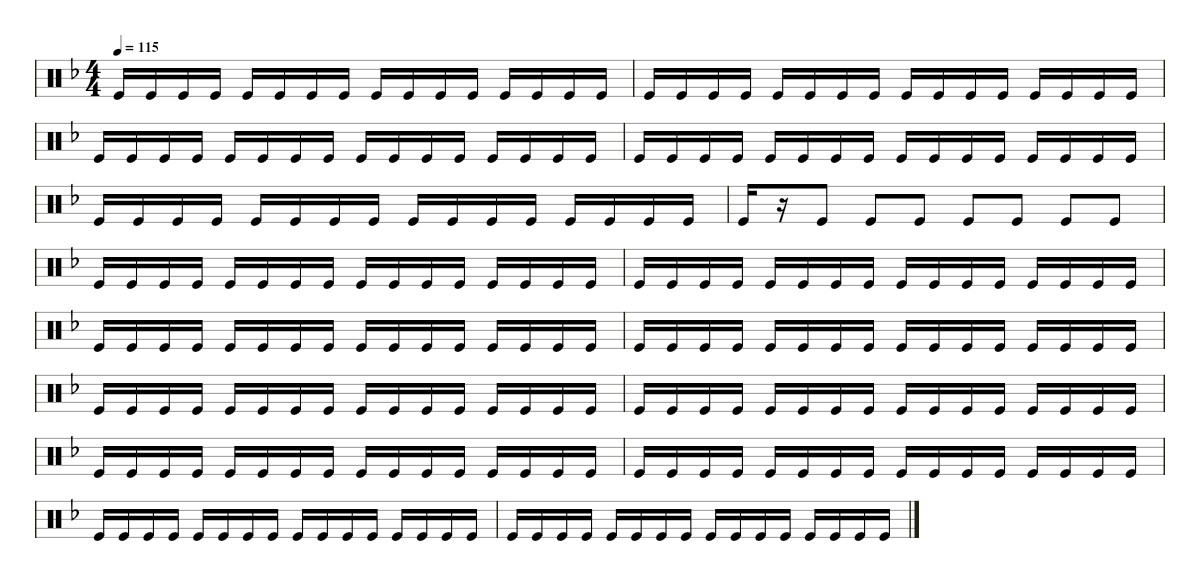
\hideDynamics
\bracketExtendMode groupsimilarinstruments
\singleTrackTrackNamePolicy hidden
\multiTrackTrackNamePolicy hidden
\firstSystemTrackNameOrientation horizontal
\otherSystemsTrackNameOrientation horizontal
\chordDiagramsInScore
\defaultBarNumberDisplay Hide
\track ("Tambourine" "Tamb.") {instrument percussion}
\staff {score}
\articulation defaults
\ts (4 4)
\tempo 115
\clef neutral
\ks dminor "Kick (hit)".16{dy f} "Kick (hit)".16 "Kick (hit)".16 "Kick (hit)".16 "Kick (hit)".16 "Kick (hit)".16 "Kick (hit)".16 "Kick (hit)".16 "Kick (hit)".16 "Kick (hit)".16 "Kick (hit)".16 "Kick (hit)".16 "Kick (hit)".16 "Kick (hit)".16 "Kick (hit)".16 "Kick (hit)".16
|
"Kick (hit)".16 "Kick (hit)".16 "Kick (hit)".16 "Kick (hit)".16 "Kick (hit)".16 "Kick (hit)".16 "Kick (hit)".16 "Kick (hit)".16 "Kick (hit)".16 "Kick (hit)".16 "Kick (hit)".16 "Kick (hit)".16 "Kick (hit)".16 "Kick (hit)".16 "Kick (hit)".16 "Kick (hit)".16 |
"Kick (hit)".16 "Kick (hit)".16 "Kick (hit)".16 "Kick (hit)".16 "Kick (hit)".16 "Kick (hit)".16 "Kick (hit)".16 "Kick (hit)".16 "Kick (hit)".16 "Kick (hit)".16 "Kick (hit)".16 "Kick (hit)".16 "Kick (hit)".16 "Kick (hit)".16 "Kick (hit)".16 "Kick (hit)".16 |
"Kick (hit)".16 "Kick (hit)".16 "Kick (hit)".16 "Kick (hit)".16 "Kick (hit)".16 "Kick (hit)".16 "Kick (hit)".16 "Kick (hit)".16 "Kick (hit)".16 "Kick (hit)".16 "Kick (hit)".16 "Kick (hit)".16 "Kick (hit)".16 "Kick (hit)".16 "Kick (hit)".16 "Kick (hit)".16 |
"Kick (hit)".16 "Kick (hit)".16 "Kick (hit)".16 "Kick (hit)".16 "Kick (hit)".16 "Kick (hit)".16 "Kick (hit)".16 "Kick (hit)".16 "Kick (hit)".16 "Kick (hit)".16 "Kick (hit)".16 "Kick (hit)".16 "Kick (hit)".16 "Kick (hit)".16 "Kick (hit)".16 "Kick (hit)".16 |
"Kick (hit)".16 r.16 "Kick (hit)".8 "Kick (hit)".8 "Kick (hit)".8 "Kick (hit)".8 "Kick (hit)".8 "Kick (hit)".8 "Kick (hit)".8 |
"Kick (hit)".16 "Kick (hit)".16 "Kick (hit)".16 "Kick (hit)".16 "Kick (hit)".16 "Kick (hit)".16 "Kick (hit)".16 "Kick (hit)".16 "Kick (hit)".16 "Kick (hit)".16 "Kick (hit)".16 "Kick (hit)".16 "Kick (hit)".16 "Kick (hit)".16 "Kick (hit)".16 "Kick (hit)".16 |
"Kick (hit)".16 "Kick (hit)".16 "Kick (hit)".16 "Kick (hit)".16 "Kick (hit)".16 "Kick (hit)".16 "Kick (hit)".16 "Kick (hit)".16 "Kick (hit)".16 "Kick (hit)".16 "Kick (hit)".16 "Kick (hit)".16 "Kick (hit)".16 "Kick (hit)".16 "Kick (hit)".16 "Kick (hit)".16 |
"Kick (hit)".16 "Kick (hit)".16 "Kick (hit)".16 "Kick (hit)".16 "Kick (hit)".16 "Kick (hit)".16 "Kick (hit)".16 "Kick (hit)".16 "Kick (hit)".16 "Kick (hit)".16 "Kick (hit)".16 "Kick (hit)".16 "Kick (hit)".16 "Kick (hit)".16 "Kick (hit)".16 "Kick (hit)".16 |
"Kick (hit)".16 "Kick (hit)".16 "Kick (hit)".16 "Kick (hit)".16 "Kick (hit)".16 "Kick (hit)".16 "Kick (hit)".16 "Kick (hit)".16 "Kick (hit)".16 "Kick (hit)".16 "Kick (hit)".16 "Kick (hit)".16 "Kick (hit)".16 "Kick (hit)".16 "Kick (hit)".16 "Kick (hit)".16 |
"Kick (hit)".16 "Kick (hit)".16 "Kick (hit)".16 "Kick (hit)".16 "Kick (hit)".16 "Kick (hit)".16 "Kick (hit)".16 "Kick (hit)".16 "Kick (hit)".16 "Kick (hit)".16 "Kick (hit)".16 "Kick (hit)".16 "Kick (hit)".16 "Kick (hit)".16 "Kick (hit)".16 "Kick (hit)".16 |
"Kick (hit)".16 "Kick (hit)".16 "Kick (hit)".16 "Kick (hit)".16 "Kick (hit)".16 "Kick (hit)".16 "Kick (hit)".16 "Kick (hit)".16 "Kick (hit)".16 "Kick (hit)".16 "Kick (hit)".16 "Kick (hit)".16 "Kick (hit)".16 "Kick (hit)".16 "Kick (hit)".16 "Kick (hit)".16 |
"Kick (hit)".16 "Kick (hit)".16 "Kick (hit)".16 "Kick (hit)".16 "Kick (hit)".16 "Kick (hit)".16 "Kick (hit)".16 "Kick (hit)".16 "Kick (hit)".16 "Kick (hit)".16 "Kick (hit)".16 "Kick (hit)".16 "Kick (hit)".16 "Kick (hit)".16 "Kick (hit)".16 "Kick (hit)".16 |
"Kick (hit)".16 "Kick (hit)".16 "Kick (hit)".16 "Kick (hit)".16 "Kick (hit)".16 "Kick (hit)".16 "Kick (hit)".16 "Kick (hit)".16 "Kick (hit)".16 "Kick (hit)".16 "Kick (hit)".16 "Kick (hit)".16 "Kick (hit)".16 "Kick (hit)".16 "Kick (hit)".16 "Kick (hit)".16 |
"Kick (hit)".16 "Kick (hit)".16 "Kick (hit)".16 "Kick (hit)".16 "Kick (hit)".16 "Kick (hit)".16 "Kick (hit)".16 "Kick (hit)".16 "Kick (hit)".16 "Kick (hit)".16 "Kick (hit)".16 "Kick (hit)".16 "Kick (hit)".16 "Kick (hit)".16 "Kick (hit)".16 "Kick (hit)".16 |
"Kick (hit)".16 "Kick (hit)".16 "Kick (hit)".16 "Kick (hit)".16 "Kick (hit)".16 "Kick (hit)".16 "Kick (hit)".16 "Kick (hit)".16 "Kick (hit)".16 "Kick (hit)".16 "Kick (hit)".16 "Kick (hit)".16 "Kick (hit)".16 "Kick (hit)".16 "Kick (hit)".16 "Kick (hit)".16
